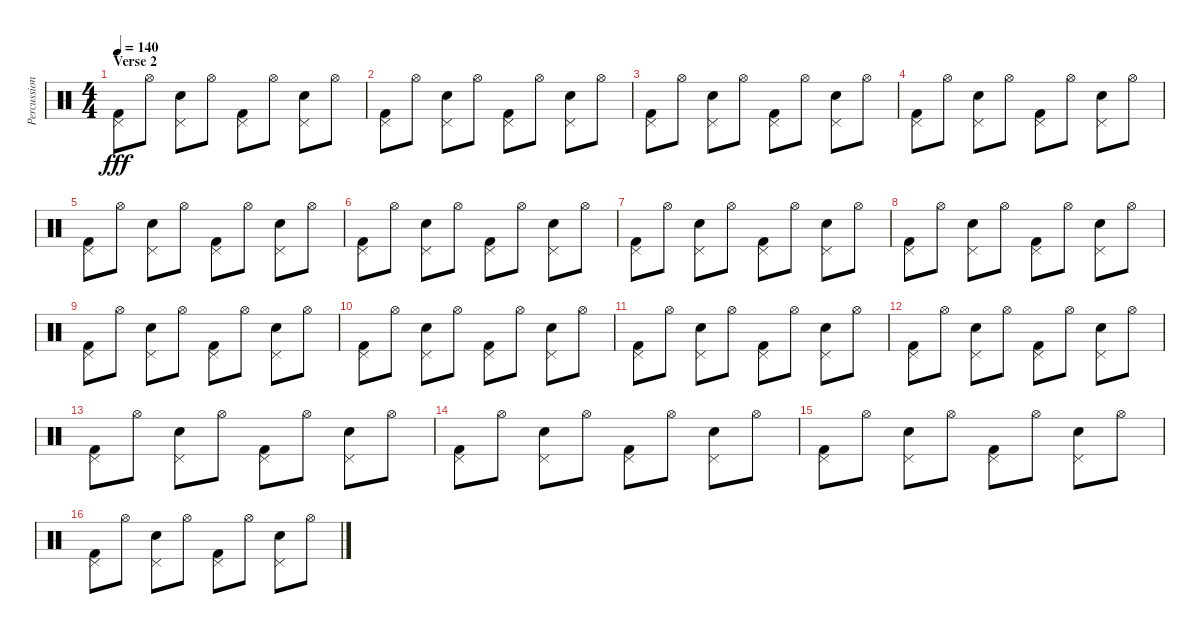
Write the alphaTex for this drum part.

\track ("Percussion" "Percussion") {instrument percussion}
\staff {score}
\articulation defaults
\ts (4 4)
\section ("" "Verse 2")
\tempo 140
\clef neutral
\ks c
("Pedal Hi-Hat (hit)" "Kick (hit) 2").8{dy fff} "Hi-Hat (open)".8 ("Pedal Hi-Hat (hit)" "Electric Snare (hit)").8 "Hi-Hat (open)".8 ("Pedal Hi-Hat (hit)" "Kick (hit) 2").8 "Hi-Hat (open)".8 ("Pedal Hi-Hat (hit)" "Electric Snare (hit)").8 "Hi-Hat (open)".8 |
("Pedal Hi-Hat (hit)" "Kick (hit) 2").8 "Hi-Hat (open)".8 ("Pedal Hi-Hat (hit)" "Electric Snare (hit)").8 "Hi-Hat (open)".8 ("Pedal Hi-Hat (hit)" "Kick (hit) 2").8 "Hi-Hat (open)".8 ("Pedal Hi-Hat (hit)" "Electric Snare (hit)").8 "Hi-Hat (open)".8 |
("Pedal Hi-Hat (hit)" "Kick (hit) 2").8 "Hi-Hat (open)".8 ("Pedal Hi-Hat (hit)" "Electric Snare (hit)").8 "Hi-Hat (open)".8 ("Pedal Hi-Hat (hit)" "Kick (hit) 2").8 "Hi-Hat (open)".8 ("Pedal Hi-Hat (hit)" "Electric Snare (hit)").8 "Hi-Hat (open)".8 |
("Pedal Hi-Hat (hit)" "Kick (hit) 2").8 "Hi-Hat (open)".8 ("Pedal Hi-Hat (hit)" "Electric Snare (hit)").8 "Hi-Hat (open)".8 ("Pedal Hi-Hat (hit)" "Kick (hit) 2").8 "Hi-Hat (open)".8 ("Pedal Hi-Hat (hit)" "Electric Snare (hit)").8 "Hi-Hat (open)".8 |
("Pedal Hi-Hat (hit)" "Kick (hit) 2").8 "Hi-Hat (open)".8 ("Pedal Hi-Hat (hit)" "Electric Snare (hit)").8 "Hi-Hat (open)".8 ("Pedal Hi-Hat (hit)" "Kick (hit) 2").8 "Hi-Hat (open)".8 ("Pedal Hi-Hat (hit)" "Electric Snare (hit)").8 "Hi-Hat (open)".8 |
("Pedal Hi-Hat (hit)" "Kick (hit) 2").8 "Hi-Hat (open)".8 ("Pedal Hi-Hat (hit)" "Electric Snare (hit)").8 "Hi-Hat (open)".8 ("Pedal Hi-Hat (hit)" "Kick (hit) 2").8 "Hi-Hat (open)".8 ("Pedal Hi-Hat (hit)" "Electric Snare (hit)").8 "Hi-Hat (open)".8 |
("Pedal Hi-Hat (hit)" "Kick (hit) 2").8 "Hi-Hat (open)".8 ("Pedal Hi-Hat (hit)" "Electric Snare (hit)").8 "Hi-Hat (open)".8 ("Pedal Hi-Hat (hit)" "Kick (hit) 2").8 "Hi-Hat (open)".8 ("Pedal Hi-Hat (hit)" "Electric Snare (hit)").8 "Hi-Hat (open)".8 |
("Pedal Hi-Hat (hit)" "Kick (hit) 2").8 "Hi-Hat (open)".8 ("Pedal Hi-Hat (hit)" "Electric Snare (hit)").8 "Hi-Hat (open)".8 ("Pedal Hi-Hat (hit)" "Kick (hit) 2").8 "Hi-Hat (open)".8 ("Pedal Hi-Hat (hit)" "Electric Snare (hit)").8 "Hi-Hat (open)".8 |
("Pedal Hi-Hat (hit)" "Kick (hit) 2").8 "Hi-Hat (open)".8 ("Pedal Hi-Hat (hit)" "Electric Snare (hit)").8 "Hi-Hat (open)".8 ("Pedal Hi-Hat (hit)" "Kick (hit) 2").8 "Hi-Hat (open)".8 ("Pedal Hi-Hat (hit)" "Electric Snare (hit)").8 "Hi-Hat (open)".8 |
("Pedal Hi-Hat (hit)" "Kick (hit) 2").8 "Hi-Hat (open)".8 ("Pedal Hi-Hat (hit)" "Electric Snare (hit)").8 "Hi-Hat (open)".8 ("Pedal Hi-Hat (hit)" "Kick (hit) 2").8 "Hi-Hat (open)".8 ("Pedal Hi-Hat (hit)" "Electric Snare (hit)").8 "Hi-Hat (open)".8 |
("Pedal Hi-Hat (hit)" "Kick (hit) 2").8 "Hi-Hat (open)".8 ("Pedal Hi-Hat (hit)" "Electric Snare (hit)").8 "Hi-Hat (open)".8 ("Pedal Hi-Hat (hit)" "Kick (hit) 2").8 "Hi-Hat (open)".8 ("Pedal Hi-Hat (hit)" "Electric Snare (hit)").8 "Hi-Hat (open)".8 |
("Pedal Hi-Hat (hit)" "Kick (hit) 2").8 "Hi-Hat (open)".8 ("Pedal Hi-Hat (hit)" "Electric Snare (hit)").8 "Hi-Hat (open)".8 ("Pedal Hi-Hat (hit)" "Kick (hit) 2").8 "Hi-Hat (open)".8 ("Pedal Hi-Hat (hit)" "Electric Snare (hit)").8 "Hi-Hat (open)".8 |
("Pedal Hi-Hat (hit)" "Kick (hit) 2").8 "Hi-Hat (open)".8 ("Pedal Hi-Hat (hit)" "Electric Snare (hit)").8 "Hi-Hat (open)".8 ("Pedal Hi-Hat (hit)" "Kick (hit) 2").8 "Hi-Hat (open)".8 ("Pedal Hi-Hat (hit)" "Electric Snare (hit)").8 "Hi-Hat (open)".8 |
("Pedal Hi-Hat (hit)" "Kick (hit) 2").8 "Hi-Hat (open)".8 ("Pedal Hi-Hat (hit)" "Electric Snare (hit)").8 "Hi-Hat (open)".8 ("Pedal Hi-Hat (hit)" "Kick (hit) 2").8 "Hi-Hat (open)".8 ("Pedal Hi-Hat (hit)" "Electric Snare (hit)").8 "Hi-Hat (open)".8 |
("Pedal Hi-Hat (hit)" "Kick (hit) 2").8 "Hi-Hat (open)".8 ("Pedal Hi-Hat (hit)" "Electric Snare (hit)").8 "Hi-Hat (open)".8 ("Pedal Hi-Hat (hit)" "Kick (hit) 2").8 "Hi-Hat (open)".8 ("Pedal Hi-Hat (hit)" "Electric Snare (hit)").8 "Hi-Hat (open)".8 |
("Pedal Hi-Hat (hit)" "Kick (hit) 2").8 "Hi-Hat (open)".8 ("Pedal Hi-Hat (hit)" "Electric Snare (hit)").8 "Hi-Hat (open)".8 ("Pedal Hi-Hat (hit)" "Kick (hit) 2").8 "Hi-Hat (open)".8 ("Pedal Hi-Hat (hit)" "Electric Snare (hit)").8 "Hi-Hat (open)".8
